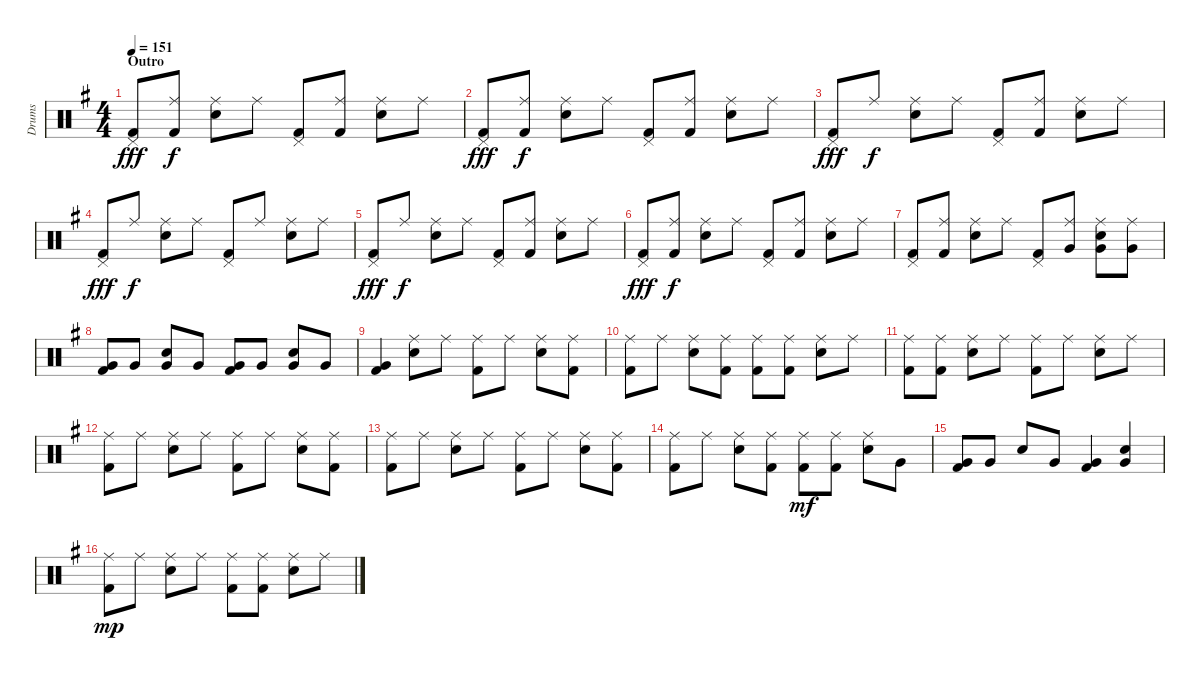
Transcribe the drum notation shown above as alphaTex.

\track ("Drums " "Drums ") {instrument percussion}
\staff {score}
\articulation defaults
\ts (4 4)
\section ("" "Outro")
\tempo 151
\clef neutral
\ks eminor
("Pedal Hi-Hat (hit)" "Kick (hit) 2").8{dy fff} ("Kick (hit) 2" "Ride (middle)").8{dy f} ("Snare (hit) 2" "Ride (middle)").8 "Ride (middle)".8 ("Pedal Hi-Hat (hit)" "Kick (hit) 2").8 ("Kick (hit) 2" "Ride (middle)").8 ("Snare (hit) 2" "Ride (middle)").8 "Ride (middle)".8 |
("Pedal Hi-Hat (hit)" "Kick (hit) 2").8{dy fff} ("Kick (hit) 2" "Ride (middle)").8{dy f} ("Snare (hit) 2" "Ride (middle)").8 "Ride (middle)".8 ("Pedal Hi-Hat (hit)" "Kick (hit) 2").8 ("Kick (hit) 2" "Ride (middle)").8 ("Snare (hit) 2" "Ride (middle)").8 "Ride (middle)".8 |
("Pedal Hi-Hat (hit)" "Kick (hit) 2").8{dy fff} "Ride (middle)".8{dy f} ("Snare (hit) 2" "Ride (middle)").8 "Ride (middle)".8 ("Pedal Hi-Hat (hit)" "Kick (hit) 2").8 ("Kick (hit) 2" "Ride (middle)").8 ("Snare (hit) 2" "Ride (middle)").8 "Ride (middle)".8 |
("Pedal Hi-Hat (hit)" "Kick (hit) 2").8{dy fff} "Ride (middle)".8{dy f} ("Snare (hit) 2" "Ride (middle)").8 "Ride (middle)".8 ("Pedal Hi-Hat (hit)" "Kick (hit) 2").8 "Ride (middle)".8 ("Snare (hit) 2" "Ride (middle)").8 "Ride (middle)".8 |
("Pedal Hi-Hat (hit)" "Kick (hit) 2").8{dy fff} "Ride (middle)".8{dy f} ("Snare (hit) 2" "Ride (middle)").8 "Ride (middle)".8 ("Pedal Hi-Hat (hit)" "Kick (hit) 2").8 ("Kick (hit) 2" "Ride (middle)").8 ("Snare (hit) 2" "Ride (middle)").8 "Ride (middle)".8 |
("Pedal Hi-Hat (hit)" "Kick (hit) 2").8{dy fff} ("Kick (hit) 2" "Ride (middle)").8{dy f} ("Snare (hit) 2" "Ride (middle)").8 "Ride (middle)".8 ("Pedal Hi-Hat (hit)" "Kick (hit) 2").8 ("Kick (hit) 2" "Ride (middle)").8 ("Snare (hit) 2" "Ride (middle)").8 "Ride (middle)".8 |
("Kick (hit) 2" "Pedal Hi-Hat (hit)").8 ("Kick (hit) 2" "Ride (middle)").8 ("Snare (hit) 2" "Ride (middle)").8 "Ride (middle)".8 ("Kick (hit) 2" "Pedal Hi-Hat (hit)").8 ("Very Low Tom (hit)" "Ride (middle)").8 ("Very Low Tom (hit)" "Snare (hit) 2" "Ride (middle)").8 ("Very Low Tom (hit)" "Ride (middle)").8 |
("Kick (hit) 2" "Very Low Tom (hit)").8 "Very Low Tom (hit)".8 ("Snare (hit) 2" "Very Low Tom (hit)").8 "Very Low Tom (hit)".8 ("Kick (hit) 2" "Very Low Tom (hit)").8 "Very Low Tom (hit)".8 ("Snare (hit) 2" "Very Low Tom (hit)").8 "Very Low Tom (hit)".8 |
("Very Low Tom (hit)" "Kick (hit) 2").4 ("Ride (middle)" "Snare (hit) 2").8 "Ride (middle)".8 ("Ride (middle)" "Kick (hit) 2").8 "Ride (middle)".8 ("Ride (middle)" "Snare (hit) 2").8 ("Ride (middle)" "Kick (hit) 2").8 |
("Kick (hit) 2" "Ride (middle)").8 "Ride (middle)".8 ("Snare (hit) 2" "Ride (middle)").8 ("Kick (hit) 2" "Ride (middle)").8 ("Kick (hit) 2" "Ride (middle)").8 ("Kick (hit) 2" "Ride (middle)").8 ("Snare (hit) 2" "Ride (middle)").8 "Ride (middle)".8 |
("Ride (middle)" "Kick (hit) 2").8 ("Ride (middle)" "Kick (hit) 2").8 ("Ride (middle)" "Snare (hit) 2").8 "Ride (middle)".8 ("Ride (middle)" "Kick (hit) 2").8 "Ride (middle)".8 ("Ride (middle)" "Snare (hit) 2").8 "Ride (middle)".8 |
("Ride (middle)" "Kick (hit) 2").8 "Ride (middle)".8 ("Ride (middle)" "Snare (hit) 2").8 "Ride (middle)".8 ("Ride (middle)" "Kick (hit) 2").8 "Ride (middle)".8 ("Ride (middle)" "Snare (hit) 2").8 ("Kick (hit) 2" "Ride (middle)").8 |
("Ride (middle)" "Kick (hit) 2").8 "Ride (middle)".8 ("Ride (middle)" "Snare (hit) 2").8 "Ride (middle)".8 ("Ride (middle)" "Kick (hit) 2").8 "Ride (middle)".8 ("Ride (middle)" "Snare (hit) 2").8 ("Kick (hit) 2" "Ride (middle)").8 |
("Ride (middle)" "Kick (hit) 2").8 "Ride (middle)".8 ("Ride (middle)" "Snare (hit) 2").8 ("Kick (hit) 2" "Ride (middle)").8 ("Ride (middle)" "Kick (hit) 2").8{dy mf} ("Kick (hit) 2" "Ride (middle)").8 ("Ride (middle)" "Snare (hit) 2").8 "Very Low Tom (hit)".8 |
("Very Low Tom (hit)" "Kick (hit) 2").8 "Very Low Tom (hit)".8 "Snare (hit) 2".8 "Very Low Tom (hit)".8 ("Very Low Tom (hit)" "Kick (hit) 2").4 ("Very Low Tom (hit)" "Snare (hit) 2").4 |
("Kick (hit) 2" "Ride (middle)").8{dy mp} "Ride (middle)".8 ("Snare (hit) 2" "Ride (middle)").8 "Ride (middle)".8 ("Kick (hit) 2" "Ride (middle)").8 ("Kick (hit) 2" "Ride (middle)").8 ("Snare (hit) 2" "Ride (middle)").8 "Ride (middle)".8
